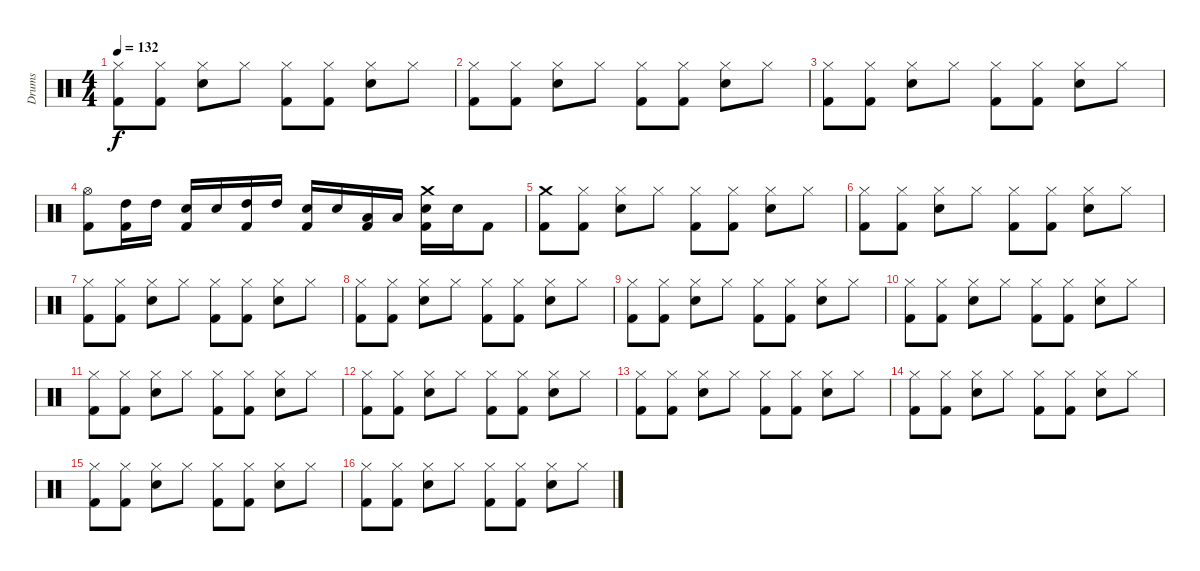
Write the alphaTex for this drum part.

\track ("Drums" "Drums") {instrument percussion}
\staff {score}
\articulation defaults
\ts (4 4)
\tempo 132
\clef neutral
\ks c
("Kick (hit) 2" "Hi-Hat (closed)").8{dy f} ("Kick (hit) 2" "Hi-Hat (closed)").8 ("Snare (hit) 2" "Hi-Hat (closed)").8 "Hi-Hat (closed)".8 ("Kick (hit) 2" "Hi-Hat (closed)").8 ("Kick (hit) 2" "Hi-Hat (closed)").8 ("Snare (hit) 2" "Hi-Hat (closed)").8 "Hi-Hat (closed)".8 |
("Kick (hit) 2" "Hi-Hat (closed)").8 ("Kick (hit) 2" "Hi-Hat (closed)").8 ("Snare (hit) 2" "Hi-Hat (closed)").8 "Hi-Hat (closed)".8 ("Kick (hit) 2" "Hi-Hat (closed)").8 ("Kick (hit) 2" "Hi-Hat (closed)").8 ("Snare (hit) 2" "Hi-Hat (closed)").8 "Hi-Hat (closed)".8 |
("Kick (hit) 2" "Hi-Hat (closed)").8 ("Kick (hit) 2" "Hi-Hat (closed)").8 ("Snare (hit) 2" "Hi-Hat (closed)").8 "Hi-Hat (closed)".8 ("Kick (hit) 2" "Hi-Hat (closed)").8 ("Kick (hit) 2" "Hi-Hat (closed)").8 ("Snare (hit) 2" "Hi-Hat (closed)").8 "Hi-Hat (closed)".8 |
("Kick (hit) 2" "Hi-Hat (open)").8 ("Kick (hit) 2" "High Tom (hit)").16 "High Tom (hit)".16 ("Kick (hit) 2" "Snare (hit) 2").16 "Snare (hit) 2".16 ("Kick (hit) 2" "High Tom (hit)").16 "High Tom (hit)".16 ("Kick (hit) 2" "Snare (hit) 2").16 "Snare (hit) 2".16 ("Kick (hit) 2" "Low Tom (hit)").16 "Low Tom (hit)".16 ("Kick (hit) 2" "Snare (hit) 2" "Crash medium (hit)").16 "Snare (hit) 2".16 "Kick (hit) 2".8 |
("Kick (hit) 2" "Crash medium (hit)").8 ("Kick (hit) 2" "Hi-Hat (closed)").8 ("Snare (hit) 2" "Hi-Hat (closed)").8 "Hi-Hat (closed)".8 ("Kick (hit) 2" "Hi-Hat (closed)").8 ("Kick (hit) 2" "Hi-Hat (closed)").8 ("Snare (hit) 2" "Hi-Hat (closed)").8 "Hi-Hat (closed)".8 |
("Kick (hit) 2" "Hi-Hat (closed)").8 ("Kick (hit) 2" "Hi-Hat (closed)").8 ("Snare (hit) 2" "Hi-Hat (closed)").8 "Hi-Hat (closed)".8 ("Kick (hit) 2" "Hi-Hat (closed)").8 ("Kick (hit) 2" "Hi-Hat (closed)").8 ("Snare (hit) 2" "Hi-Hat (closed)").8 "Hi-Hat (closed)".8 |
("Kick (hit) 2" "Hi-Hat (closed)").8 ("Kick (hit) 2" "Hi-Hat (closed)").8 ("Snare (hit) 2" "Hi-Hat (closed)").8 "Hi-Hat (closed)".8 ("Kick (hit) 2" "Hi-Hat (closed)").8 ("Kick (hit) 2" "Hi-Hat (closed)").8 ("Snare (hit) 2" "Hi-Hat (closed)").8 "Hi-Hat (closed)".8 |
("Kick (hit) 2" "Hi-Hat (closed)").8 ("Kick (hit) 2" "Hi-Hat (closed)").8 ("Snare (hit) 2" "Hi-Hat (closed)").8 "Hi-Hat (closed)".8 ("Kick (hit) 2" "Hi-Hat (closed)").8 ("Kick (hit) 2" "Hi-Hat (closed)").8 ("Snare (hit) 2" "Hi-Hat (closed)").8 "Hi-Hat (closed)".8 |
("Kick (hit) 2" "Hi-Hat (closed)").8 ("Kick (hit) 2" "Hi-Hat (closed)").8 ("Snare (hit) 2" "Hi-Hat (closed)").8 "Hi-Hat (closed)".8 ("Kick (hit) 2" "Hi-Hat (closed)").8 ("Kick (hit) 2" "Hi-Hat (closed)").8 ("Snare (hit) 2" "Hi-Hat (closed)").8 "Hi-Hat (closed)".8 |
("Kick (hit) 2" "Hi-Hat (closed)").8 ("Kick (hit) 2" "Hi-Hat (closed)").8 ("Snare (hit) 2" "Hi-Hat (closed)").8 "Hi-Hat (closed)".8 ("Kick (hit) 2" "Hi-Hat (closed)").8 ("Kick (hit) 2" "Hi-Hat (closed)").8 ("Snare (hit) 2" "Hi-Hat (closed)").8 "Hi-Hat (closed)".8 |
("Kick (hit) 2" "Hi-Hat (closed)").8 ("Kick (hit) 2" "Hi-Hat (closed)").8 ("Snare (hit) 2" "Hi-Hat (closed)").8 "Hi-Hat (closed)".8 ("Kick (hit) 2" "Hi-Hat (closed)").8 ("Kick (hit) 2" "Hi-Hat (closed)").8 ("Snare (hit) 2" "Hi-Hat (closed)").8 "Hi-Hat (closed)".8 |
("Kick (hit) 2" "Hi-Hat (closed)").8 ("Kick (hit) 2" "Hi-Hat (closed)").8 ("Snare (hit) 2" "Hi-Hat (closed)").8 "Hi-Hat (closed)".8 ("Kick (hit) 2" "Hi-Hat (closed)").8 ("Kick (hit) 2" "Hi-Hat (closed)").8 ("Snare (hit) 2" "Hi-Hat (closed)").8 "Hi-Hat (closed)".8 |
("Kick (hit) 2" "Hi-Hat (closed)").8 ("Kick (hit) 2" "Hi-Hat (closed)").8 ("Snare (hit) 2" "Hi-Hat (closed)").8 "Hi-Hat (closed)".8 ("Kick (hit) 2" "Hi-Hat (closed)").8 ("Kick (hit) 2" "Hi-Hat (closed)").8 ("Snare (hit) 2" "Hi-Hat (closed)").8 "Hi-Hat (closed)".8 |
("Kick (hit) 2" "Hi-Hat (closed)").8 ("Kick (hit) 2" "Hi-Hat (closed)").8 ("Snare (hit) 2" "Hi-Hat (closed)").8 "Hi-Hat (closed)".8 ("Kick (hit) 2" "Hi-Hat (closed)").8 ("Kick (hit) 2" "Hi-Hat (closed)").8 ("Snare (hit) 2" "Hi-Hat (closed)").8 "Hi-Hat (closed)".8 |
("Kick (hit) 2" "Hi-Hat (closed)").8 ("Kick (hit) 2" "Hi-Hat (closed)").8 ("Snare (hit) 2" "Hi-Hat (closed)").8 "Hi-Hat (closed)".8 ("Kick (hit) 2" "Hi-Hat (closed)").8 ("Kick (hit) 2" "Hi-Hat (closed)").8 ("Snare (hit) 2" "Hi-Hat (closed)").8 "Hi-Hat (closed)".8 |
("Kick (hit) 2" "Hi-Hat (closed)").8 ("Kick (hit) 2" "Hi-Hat (closed)").8 ("Snare (hit) 2" "Hi-Hat (closed)").8 "Hi-Hat (closed)".8 ("Kick (hit) 2" "Hi-Hat (closed)").8 ("Kick (hit) 2" "Hi-Hat (closed)").8 ("Snare (hit) 2" "Hi-Hat (closed)").8 "Hi-Hat (closed)".8
